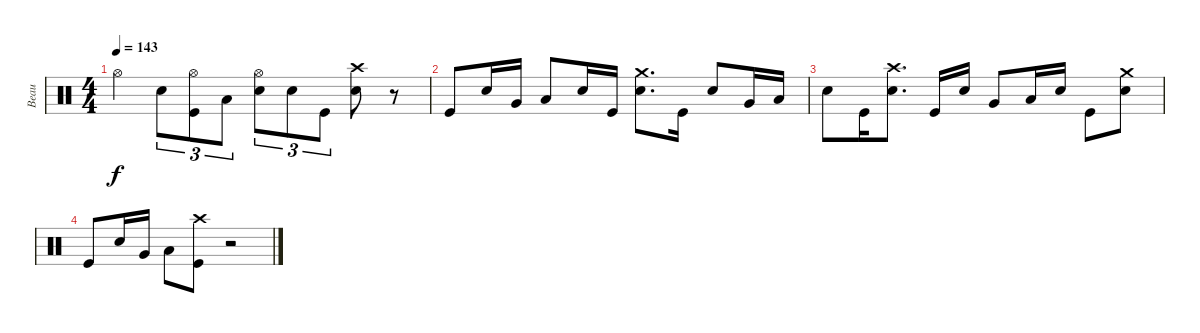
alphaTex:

\track ("Beau" "Beau") {instrument percussion}
\staff {score}
\articulation defaults
\ts (4 4)
\tempo 143
\clef neutral
\ks c "Hi-Hat (open)".4{dy f} "Snare (hit) 2".8{tu (3 2)}
("Kick (hit)" "Hi-Hat (open)").8{tu (3 2)} "Low Tom (hit)".8{tu (3 2)} ("Snare (hit) 2" "Hi-Hat (open)").8{tu (3 2)} "Snare (hit) 2".8{tu (3 2)} "Kick (hit)".8{tu (3 2)} ("Snare (hit) 2" "Crash high (hit)").8 r.8 |
"Kick (hit)".8 "Snare (hit) 2".16 "Very Low Tom (hit)".16 "Low Floor Tom (hit)".8 "Snare (hit) 2".16 "Kick (hit)".16 ("Snare (hit) 2" "Crash medium (hit)").8{d} "Kick (hit)".16 "Snare (hit) 2".8 "Very Low Tom (hit)".16 "Low Floor Tom (hit)".16 |
"Snare (hit) 2".8 "Kick (hit)".16 ("Snare (hit) 2" "Crash high (hit)").8{d} "Kick (hit)".16 "Snare (hit) 2".16 "Very Low Tom (hit)".8 "Low Floor Tom (hit)".16 "Snare (hit) 2".16 "Kick (hit)".8 ("Snare (hit) 2" "Crash medium (hit)").8 |
"Kick (hit)".8 "Snare (hit) 2".16 "Very Low Tom (hit)".16 "Low Floor Tom (hit)".8 ("Kick (hit)" "Crash high (hit)").8 r.2
